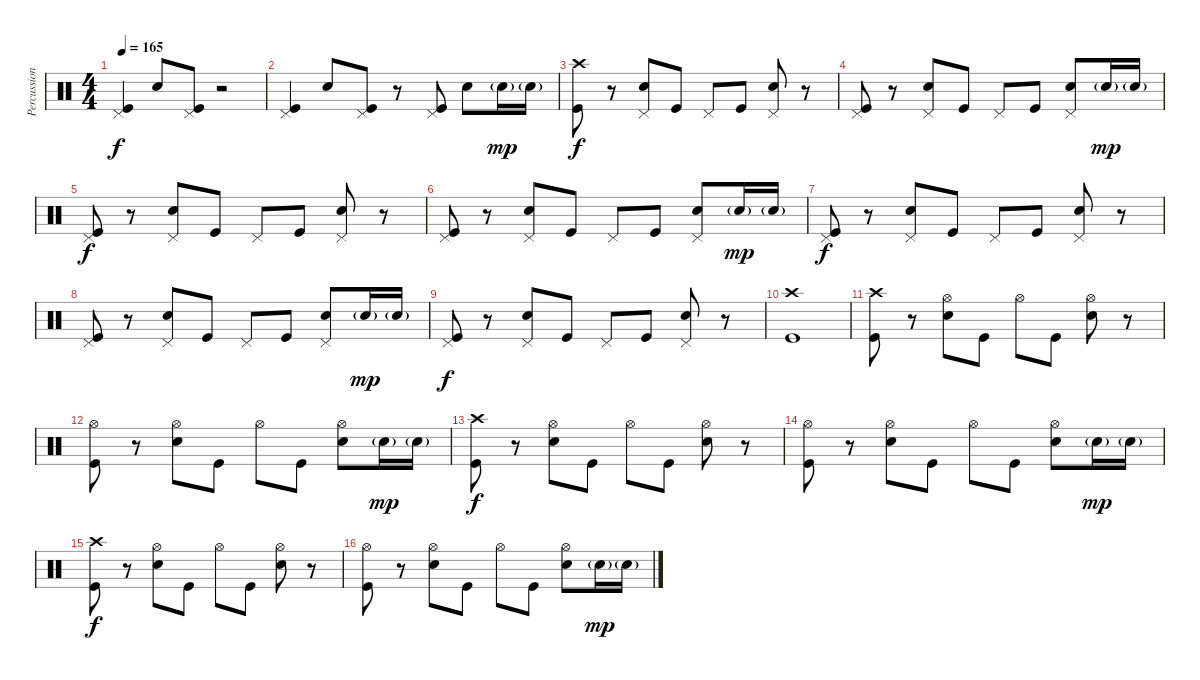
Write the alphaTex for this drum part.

\track ("Percussion" "Percussion") {instrument percussion}
\staff {score}
\articulation defaults
\ts (4 4)
\tempo 165
\clef neutral
\ks c
("Pedal Hi-Hat (hit)" "Kick (hit)").4{dy f} "Snare (hit) 2".8 ("Pedal Hi-Hat (hit)" "Kick (hit)").8 r.2 |
("Pedal Hi-Hat (hit)" "Kick (hit)").4 "Snare (hit) 2".8 ("Pedal Hi-Hat (hit)" "Kick (hit)").8 r.8 ("Pedal Hi-Hat (hit)" "Kick (hit)").8 "Snare (hit) 2".8 "Snare (hit) 2"{g}.16{dy mp} "Snare (hit) 2"{g}.16 |
("Crash high (hit)" "Kick (hit)").8{dy f} r.8 ("Pedal Hi-Hat (hit)" "Snare (hit) 2").8 "Kick (hit)".8 "Pedal Hi-Hat (hit)".8 "Kick (hit)".8 ("Pedal Hi-Hat (hit)" "Snare (hit) 2").8 r.8 |
("Pedal Hi-Hat (hit)" "Kick (hit)").8 r.8 ("Pedal Hi-Hat (hit)" "Snare (hit) 2").8 "Kick (hit)".8 "Pedal Hi-Hat (hit)".8 "Kick (hit)".8 ("Pedal Hi-Hat (hit)" "Snare (hit) 2").8 "Snare (hit) 2"{g}.16{dy mp} "Snare (hit) 2"{g}.16 |
("Pedal Hi-Hat (hit)" "Kick (hit)").8{dy f} r.8 ("Pedal Hi-Hat (hit)" "Snare (hit) 2").8 "Kick (hit)".8 "Pedal Hi-Hat (hit)".8 "Kick (hit)".8 ("Pedal Hi-Hat (hit)" "Snare (hit) 2").8 r.8 |
("Pedal Hi-Hat (hit)" "Kick (hit)").8 r.8 ("Pedal Hi-Hat (hit)" "Snare (hit) 2").8 "Kick (hit)".8 "Pedal Hi-Hat (hit)".8 "Kick (hit)".8 ("Pedal Hi-Hat (hit)" "Snare (hit) 2").8 "Snare (hit) 2"{g}.16{dy mp} "Snare (hit) 2"{g}.16 |
("Pedal Hi-Hat (hit)" "Kick (hit)").8{dy f} r.8 ("Pedal Hi-Hat (hit)" "Snare (hit) 2").8 "Kick (hit)".8 "Pedal Hi-Hat (hit)".8 "Kick (hit)".8 ("Pedal Hi-Hat (hit)" "Snare (hit) 2").8 r.8 |
("Pedal Hi-Hat (hit)" "Kick (hit)").8 r.8 ("Pedal Hi-Hat (hit)" "Snare (hit) 2").8 "Kick (hit)".8 "Pedal Hi-Hat (hit)".8 "Kick (hit)".8 ("Pedal Hi-Hat (hit)" "Snare (hit) 2").8 "Snare (hit) 2"{g}.16{dy mp} "Snare (hit) 2"{g}.16 |
("Pedal Hi-Hat (hit)" "Kick (hit)").8{dy f} r.8 ("Pedal Hi-Hat (hit)" "Snare (hit) 2").8 "Kick (hit)".8 "Pedal Hi-Hat (hit)".8 "Kick (hit)".8 ("Pedal Hi-Hat (hit)" "Snare (hit) 2").8 r.8 |
("Crash high (hit)" "Kick (hit)").1 |
("Crash high (hit)" "Kick (hit)").8 r.8 ("Hi-Hat (open)" "Snare (hit) 2").8 "Kick (hit)".8 "Hi-Hat (open)".8 "Kick (hit)".8 ("Hi-Hat (open)" "Snare (hit) 2").8 r.8 |
("Hi-Hat (open)" "Kick (hit)").8 r.8 ("Hi-Hat (open)" "Snare (hit) 2").8 "Kick (hit)".8 "Hi-Hat (open)".8 "Kick (hit)".8 ("Hi-Hat (open)" "Snare (hit) 2").8 "Snare (hit) 2"{g}.16{dy mp} "Snare (hit) 2"{g}.16 |
("Crash high (hit)" "Kick (hit)").8{dy f} r.8 ("Hi-Hat (open)" "Snare (hit) 2").8 "Kick (hit)".8 "Hi-Hat (open)".8 "Kick (hit)".8 ("Hi-Hat (open)" "Snare (hit) 2").8 r.8 |
("Hi-Hat (open)" "Kick (hit)").8 r.8 ("Hi-Hat (open)" "Snare (hit) 2").8 "Kick (hit)".8 "Hi-Hat (open)".8 "Kick (hit)".8 ("Hi-Hat (open)" "Snare (hit) 2").8 "Snare (hit) 2"{g}.16{dy mp} "Snare (hit) 2"{g}.16 |
("Crash high (hit)" "Kick (hit)").8{dy f} r.8 ("Hi-Hat (open)" "Snare (hit) 2").8 "Kick (hit)".8 "Hi-Hat (open)".8 "Kick (hit)".8 ("Hi-Hat (open)" "Snare (hit) 2").8 r.8 |
("Hi-Hat (open)" "Kick (hit)").8 r.8 ("Hi-Hat (open)" "Snare (hit) 2").8 "Kick (hit)".8 "Hi-Hat (open)".8 "Kick (hit)".8 ("Hi-Hat (open)" "Snare (hit) 2").8 "Snare (hit) 2"{g}.16{dy mp} "Snare (hit) 2"{g}.16
